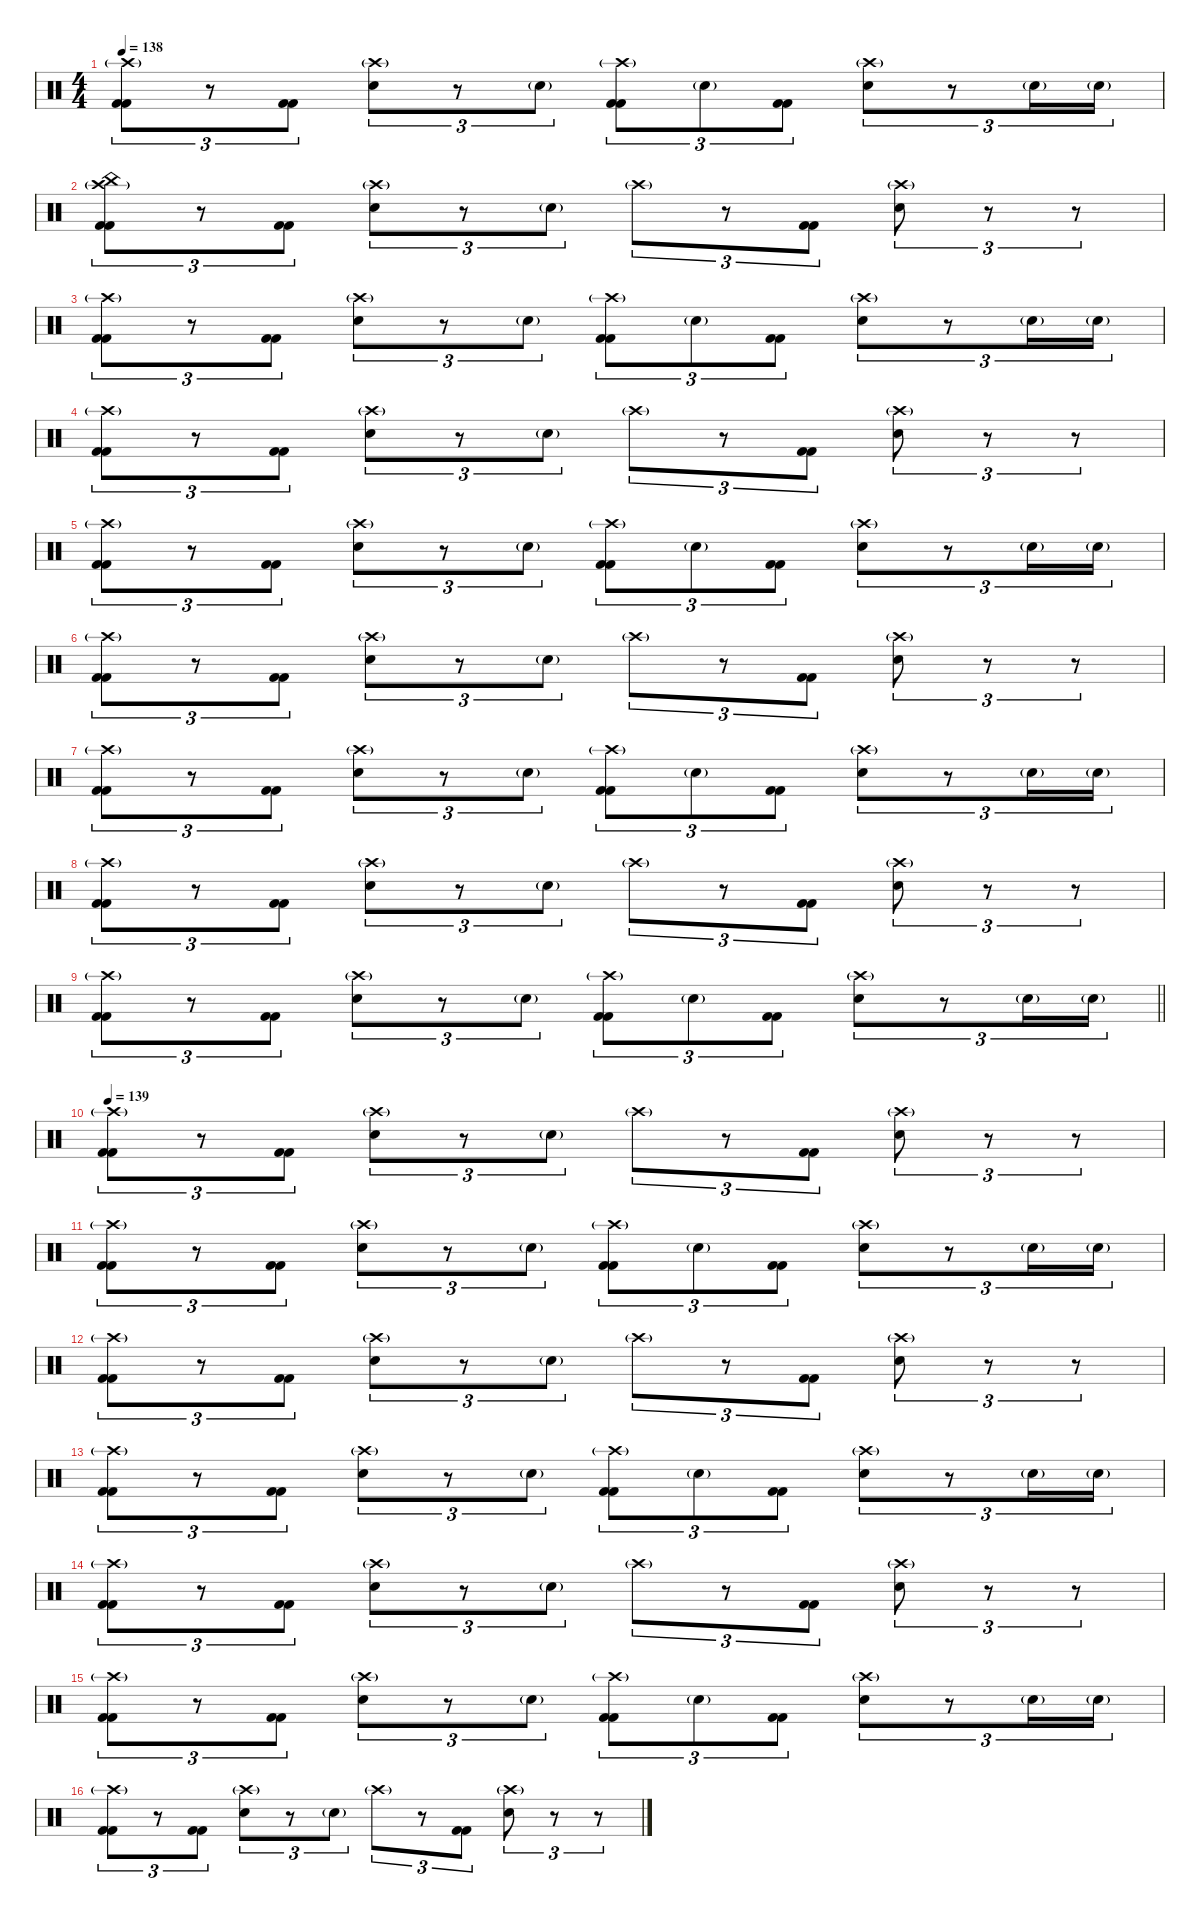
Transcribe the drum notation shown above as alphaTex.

\defaultSystemsLayout 4
\hideDynamics
\bracketExtendMode nobrackets
\singleTrackTrackNamePolicy hidden
\multiTrackTrackNamePolicy hidden
\otherSystemsTrackNameOrientation horizontal
\track ("Gene Hoglan" "drm.") {instrument percussion}
\staff {score}
\articulation defaults
\ts (4 4)
\tempo 138
\clef neutral
\ks c
("Crash high (hit)"{g} "Kick (hit) 2" "Kick (hit) 2").8{tu (3 2) dy f beam Down} r.8{tu (3 2) beam Down} ("Kick (hit) 2" "Kick (hit) 2").8{tu (3 2) beam Down} ("Crash high (hit)"{g} "Snare (hit) 2").8{tu (3 2) beam Down} r.8{tu (3 2) beam Down} "Snare (hit) 2"{g}.8{tu (3 2) dy mf beam Down} ("Crash high (hit)"{g} "Kick (hit) 2" "Kick (hit) 2").8{tu (3 2) dy f beam Down} "Snare (hit) 2"{g}.8{tu (3 2) dy mf beam Down} ("Kick (hit) 2" "Kick (hit) 2").8{tu (3 2) dy f beam Down} ("Crash high (hit)"{g} "Snare (hit) 2").8{tu (3 2) beam Down} r.8{tu (3 2) beam Down} "Snare (hit) 2"{g}.16{tu (3 2) dy mf beam Down} "Snare (hit) 2"{g}.16{tu (3 2) beam Down} |
("China (hit)" "Crash high (hit)"{g} "Kick (hit) 2" "Kick (hit) 2").8{tu (3 2) dy f beam Down} r.8{tu (3 2) beam Down} ("Kick (hit) 2" "Kick (hit) 2").8{tu (3 2) beam Down} ("Crash high (hit)"{g} "Snare (hit) 2").8{tu (3 2) beam Down} r.8{tu (3 2) beam Down} "Snare (hit) 2"{g}.8{tu (3 2) dy mf beam Down} "Crash high (hit)"{g}.8{tu (3 2) beam Down} r.8{tu (3 2) beam Down} ("Kick (hit) 2" "Kick (hit) 2").8{tu (3 2) dy f beam Down} ("Crash high (hit)"{g} "Snare (hit) 2").8{tu (3 2) beam Down} r.8{tu (3 2) beam Down} r.8{tu (3 2) beam Down} |
("Crash high (hit)"{g} "Kick (hit) 2" "Kick (hit) 2").8{tu (3 2) beam Down} r.8{tu (3 2) beam Down} ("Kick (hit) 2" "Kick (hit) 2").8{tu (3 2) beam Down} ("Crash high (hit)"{g} "Snare (hit) 2").8{tu (3 2) beam Down} r.8{tu (3 2) beam Down} "Snare (hit) 2"{g}.8{tu (3 2) dy mf beam Down} ("Crash high (hit)"{g} "Kick (hit) 2" "Kick (hit) 2").8{tu (3 2) dy f beam Down} "Snare (hit) 2"{g}.8{tu (3 2) dy mf beam Down} ("Kick (hit) 2" "Kick (hit) 2").8{tu (3 2) dy f beam Down} ("Crash high (hit)"{g} "Snare (hit) 2").8{tu (3 2) beam Down} r.8{tu (3 2) beam Down} "Snare (hit) 2"{g}.16{tu (3 2) dy mf beam Down} "Snare (hit) 2"{g}.16{tu (3 2) beam Down} |
("Crash high (hit)"{g} "Kick (hit) 2" "Kick (hit) 2").8{tu (3 2) dy f beam Down} r.8{tu (3 2) beam Down} ("Kick (hit) 2" "Kick (hit) 2").8{tu (3 2) beam Down} ("Crash high (hit)"{g} "Snare (hit) 2").8{tu (3 2) beam Down} r.8{tu (3 2) beam Down} "Snare (hit) 2"{g}.8{tu (3 2) dy mf beam Down} "Crash high (hit)"{g}.8{tu (3 2) beam Down} r.8{tu (3 2) beam Down} ("Kick (hit) 2" "Kick (hit) 2").8{tu (3 2) dy f beam Down} ("Crash high (hit)"{g} "Snare (hit) 2").8{tu (3 2) beam Down} r.8{tu (3 2) beam Down} r.8{tu (3 2) beam Down} |
("Crash high (hit)"{g} "Kick (hit) 2" "Kick (hit) 2").8{tu (3 2) beam Down} r.8{tu (3 2) beam Down} ("Kick (hit) 2" "Kick (hit) 2").8{tu (3 2) beam Down} ("Crash high (hit)"{g} "Snare (hit) 2").8{tu (3 2) beam Down} r.8{tu (3 2) beam Down} "Snare (hit) 2"{g}.8{tu (3 2) dy mf beam Down} ("Crash high (hit)"{g} "Kick (hit) 2" "Kick (hit) 2").8{tu (3 2) dy f beam Down} "Snare (hit) 2"{g}.8{tu (3 2) dy mf beam Down} ("Kick (hit) 2" "Kick (hit) 2").8{tu (3 2) dy f beam Down} ("Crash high (hit)"{g} "Snare (hit) 2").8{tu (3 2) beam Down} r.8{tu (3 2) beam Down} "Snare (hit) 2"{g}.16{tu (3 2) dy mf beam Down} "Snare (hit) 2"{g}.16{tu (3 2) beam Down} |
("Crash high (hit)"{g} "Kick (hit) 2" "Kick (hit) 2").8{tu (3 2) dy f beam Down} r.8{tu (3 2) beam Down} ("Kick (hit) 2" "Kick (hit) 2").8{tu (3 2) beam Down} ("Crash high (hit)"{g} "Snare (hit) 2").8{tu (3 2) beam Down} r.8{tu (3 2) beam Down} "Snare (hit) 2"{g}.8{tu (3 2) dy mf beam Down} "Crash high (hit)"{g}.8{tu (3 2) beam Down} r.8{tu (3 2) beam Down} ("Kick (hit) 2" "Kick (hit) 2").8{tu (3 2) dy f beam Down} ("Crash high (hit)"{g} "Snare (hit) 2").8{tu (3 2) beam Down} r.8{tu (3 2) beam Down} r.8{tu (3 2) beam Down} |
("Crash high (hit)"{g} "Kick (hit) 2" "Kick (hit) 2").8{tu (3 2) beam Down} r.8{tu (3 2) beam Down} ("Kick (hit) 2" "Kick (hit) 2").8{tu (3 2) beam Down} ("Crash high (hit)"{g} "Snare (hit) 2").8{tu (3 2) beam Down} r.8{tu (3 2) beam Down} "Snare (hit) 2"{g}.8{tu (3 2) dy mf beam Down} ("Crash high (hit)"{g} "Kick (hit) 2" "Kick (hit) 2").8{tu (3 2) dy f beam Down} "Snare (hit) 2"{g}.8{tu (3 2) dy mf beam Down} ("Kick (hit) 2" "Kick (hit) 2").8{tu (3 2) dy f beam Down} ("Crash high (hit)"{g} "Snare (hit) 2").8{tu (3 2) beam Down} r.8{tu (3 2) beam Down} "Snare (hit) 2"{g}.16{tu (3 2) dy mf beam Down} "Snare (hit) 2"{g}.16{tu (3 2) beam Down} |
("Crash high (hit)"{g} "Kick (hit) 2" "Kick (hit) 2").8{tu (3 2) dy f beam Down} r.8{tu (3 2) beam Down} ("Kick (hit) 2" "Kick (hit) 2").8{tu (3 2) beam Down} ("Crash high (hit)"{g} "Snare (hit) 2").8{tu (3 2) beam Down} r.8{tu (3 2) beam Down} "Snare (hit) 2"{g}.8{tu (3 2) dy mf beam Down} "Crash high (hit)"{g}.8{tu (3 2) beam Down} r.8{tu (3 2) beam Down} ("Kick (hit) 2" "Kick (hit) 2").8{tu (3 2) dy f beam Down} ("Crash high (hit)"{g} "Snare (hit) 2").8{tu (3 2) beam Down} r.8{tu (3 2) beam Down} r.8{tu (3 2) beam Down} |
\barLineRight lightlight
("Crash high (hit)"{g} "Kick (hit) 2" "Kick (hit) 2").8{tu (3 2) beam Down} r.8{tu (3 2) beam Down} ("Kick (hit) 2" "Kick (hit) 2").8{tu (3 2) beam Down} ("Crash high (hit)"{g} "Snare (hit) 2").8{tu (3 2) beam Down} r.8{tu (3 2) beam Down} "Snare (hit) 2"{g}.8{tu (3 2) dy mf beam Down} ("Crash high (hit)"{g} "Kick (hit) 2" "Kick (hit) 2").8{tu (3 2) dy f beam Down} "Snare (hit) 2"{g}.8{tu (3 2) dy mf beam Down} ("Kick (hit) 2" "Kick (hit) 2").8{tu (3 2) dy f beam Down} ("Crash high (hit)"{g} "Snare (hit) 2").8{tu (3 2) beam Down} r.8{tu (3 2) beam Down} "Snare (hit) 2"{g}.16{tu (3 2) dy mf beam Down} "Snare (hit) 2"{g}.16{tu (3 2) beam Down} |
\tempo 139
("Crash high (hit)"{g} "Kick (hit) 2" "Kick (hit) 2").8{tu (3 2) dy f beam Down} r.8{tu (3 2) beam Down} ("Kick (hit) 2" "Kick (hit) 2").8{tu (3 2) beam Down} ("Crash high (hit)"{g} "Snare (hit) 2").8{tu (3 2) beam Down} r.8{tu (3 2) beam Down} "Snare (hit) 2"{g}.8{tu (3 2) dy mf beam Down} "Crash high (hit)"{g}.8{tu (3 2) beam Down} r.8{tu (3 2) beam Down} ("Kick (hit) 2" "Kick (hit) 2").8{tu (3 2) dy f beam Down} ("Crash high (hit)"{g} "Snare (hit) 2").8{tu (3 2) beam Down} r.8{tu (3 2) beam Down} r.8{tu (3 2) beam Down} |
("Crash high (hit)"{g} "Kick (hit) 2" "Kick (hit) 2").8{tu (3 2) beam Down} r.8{tu (3 2) beam Down} ("Kick (hit) 2" "Kick (hit) 2").8{tu (3 2) beam Down} ("Crash high (hit)"{g} "Snare (hit) 2").8{tu (3 2) beam Down} r.8{tu (3 2) beam Down} "Snare (hit) 2"{g}.8{tu (3 2) dy mf beam Down} ("Crash high (hit)"{g} "Kick (hit) 2" "Kick (hit) 2").8{tu (3 2) dy f beam Down} "Snare (hit) 2"{g}.8{tu (3 2) dy mf beam Down} ("Kick (hit) 2" "Kick (hit) 2").8{tu (3 2) dy f beam Down} ("Crash high (hit)"{g} "Snare (hit) 2").8{tu (3 2) beam Down} r.8{tu (3 2) beam Down} "Snare (hit) 2"{g}.16{tu (3 2) dy mf beam Down} "Snare (hit) 2"{g}.16{tu (3 2) beam Down} |
("Crash high (hit)"{g} "Kick (hit) 2" "Kick (hit) 2").8{tu (3 2) dy f beam Down} r.8{tu (3 2) beam Down} ("Kick (hit) 2" "Kick (hit) 2").8{tu (3 2) beam Down} ("Crash high (hit)"{g} "Snare (hit) 2").8{tu (3 2) beam Down} r.8{tu (3 2) beam Down} "Snare (hit) 2"{g}.8{tu (3 2) dy mf beam Down} "Crash high (hit)"{g}.8{tu (3 2) beam Down} r.8{tu (3 2) beam Down} ("Kick (hit) 2" "Kick (hit) 2").8{tu (3 2) dy f beam Down} ("Crash high (hit)"{g} "Snare (hit) 2").8{tu (3 2) beam Down} r.8{tu (3 2) beam Down} r.8{tu (3 2) beam Down} |
("Crash high (hit)"{g} "Kick (hit) 2" "Kick (hit) 2").8{tu (3 2) beam Down} r.8{tu (3 2) beam Down} ("Kick (hit) 2" "Kick (hit) 2").8{tu (3 2) beam Down} ("Crash high (hit)"{g} "Snare (hit) 2").8{tu (3 2) beam Down} r.8{tu (3 2) beam Down} "Snare (hit) 2"{g}.8{tu (3 2) dy mf beam Down} ("Crash high (hit)"{g} "Kick (hit) 2" "Kick (hit) 2").8{tu (3 2) dy f beam Down} "Snare (hit) 2"{g}.8{tu (3 2) dy mf beam Down} ("Kick (hit) 2" "Kick (hit) 2").8{tu (3 2) dy f beam Down} ("Crash high (hit)"{g} "Snare (hit) 2").8{tu (3 2) beam Down} r.8{tu (3 2) beam Down} "Snare (hit) 2"{g}.16{tu (3 2) dy mf beam Down} "Snare (hit) 2"{g}.16{tu (3 2) beam Down} |
("Crash high (hit)"{g} "Kick (hit) 2" "Kick (hit) 2").8{tu (3 2) dy f beam Down} r.8{tu (3 2) beam Down} ("Kick (hit) 2" "Kick (hit) 2").8{tu (3 2) beam Down} ("Crash high (hit)"{g} "Snare (hit) 2").8{tu (3 2) beam Down} r.8{tu (3 2) beam Down} "Snare (hit) 2"{g}.8{tu (3 2) dy mf beam Down} "Crash high (hit)"{g}.8{tu (3 2) beam Down} r.8{tu (3 2) beam Down} ("Kick (hit) 2" "Kick (hit) 2").8{tu (3 2) dy f beam Down} ("Crash high (hit)"{g} "Snare (hit) 2").8{tu (3 2) beam Down} r.8{tu (3 2) beam Down} r.8{tu (3 2) beam Down} |
("Crash high (hit)"{g} "Kick (hit) 2" "Kick (hit) 2").8{tu (3 2) beam Down} r.8{tu (3 2) beam Down} ("Kick (hit) 2" "Kick (hit) 2").8{tu (3 2) beam Down} ("Crash high (hit)"{g} "Snare (hit) 2").8{tu (3 2) beam Down} r.8{tu (3 2) beam Down} "Snare (hit) 2"{g}.8{tu (3 2) dy mf beam Down} ("Crash high (hit)"{g} "Kick (hit) 2" "Kick (hit) 2").8{tu (3 2) dy f beam Down} "Snare (hit) 2"{g}.8{tu (3 2) dy mf beam Down} ("Kick (hit) 2" "Kick (hit) 2").8{tu (3 2) dy f beam Down} ("Crash high (hit)"{g} "Snare (hit) 2").8{tu (3 2) beam Down} r.8{tu (3 2) beam Down} "Snare (hit) 2"{g}.16{tu (3 2) dy mf beam Down} "Snare (hit) 2"{g}.16{tu (3 2) beam Down} |
("Crash high (hit)"{g} "Kick (hit) 2" "Kick (hit) 2").8{tu (3 2) dy f beam Down} r.8{tu (3 2) beam Down} ("Kick (hit) 2" "Kick (hit) 2").8{tu (3 2) beam Down} ("Crash high (hit)"{g} "Snare (hit) 2").8{tu (3 2) beam Down} r.8{tu (3 2) beam Down} "Snare (hit) 2"{g}.8{tu (3 2) dy mf beam Down} "Crash high (hit)"{g}.8{tu (3 2) beam Down} r.8{tu (3 2) beam Down} ("Kick (hit) 2" "Kick (hit) 2").8{tu (3 2) dy f beam Down} ("Crash high (hit)"{g} "Snare (hit) 2").8{tu (3 2) beam Down} r.8{tu (3 2) beam Down} r.8{tu (3 2) beam Down}
